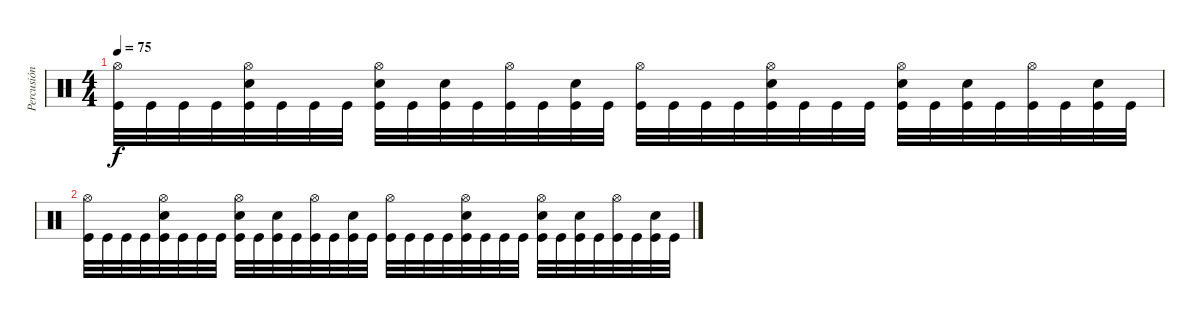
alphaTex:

\track ("Percusión" "Percusión") {instrument percussion}
\staff {score}
\articulation defaults
\ts (4 4)
\tempo 75
\clef neutral
\ks c
("Kick (hit)" "Hi-Hat (open)").32{dy f} "Kick (hit)".32 "Kick (hit)".32 "Kick (hit)".32 ("Kick (hit)" "Snare (hit) 2" "Hi-Hat (open)").32 "Kick (hit)".32 "Kick (hit)".32 "Kick (hit)".32 ("Kick (hit)" "Snare (hit) 2" "Hi-Hat (open)").32 "Kick (hit)".32 ("Kick (hit)" "Snare (hit) 2").32 "Kick (hit)".32 ("Kick (hit)" "Hi-Hat (open)").32 "Kick (hit)".32 ("Kick (hit)" "Snare (hit) 2").32 "Kick (hit)".32 ("Kick (hit)" "Hi-Hat (open)").32 "Kick (hit)".32 "Kick (hit)".32 "Kick (hit)".32 ("Kick (hit)" "Snare (hit) 2" "Hi-Hat (open)").32 "Kick (hit)".32 "Kick (hit)".32 "Kick (hit)".32 ("Kick (hit)" "Snare (hit) 2" "Hi-Hat (open)").32 "Kick (hit)".32 ("Kick (hit)" "Snare (hit) 2").32 "Kick (hit)".32 ("Kick (hit)" "Hi-Hat (open)").32 "Kick (hit)".32 ("Kick (hit)" "Snare (hit) 2").32 "Kick (hit)".32 |
("Kick (hit)" "Hi-Hat (open)").32 "Kick (hit)".32 "Kick (hit)".32 "Kick (hit)".32 ("Kick (hit)" "Snare (hit) 2" "Hi-Hat (open)").32 "Kick (hit)".32 "Kick (hit)".32 "Kick (hit)".32 ("Kick (hit)" "Snare (hit) 2" "Hi-Hat (open)").32 "Kick (hit)".32 ("Kick (hit)" "Snare (hit) 2").32 "Kick (hit)".32 ("Kick (hit)" "Hi-Hat (open)").32 "Kick (hit)".32 ("Kick (hit)" "Snare (hit) 2").32 "Kick (hit)".32 ("Kick (hit)" "Hi-Hat (open)").32 "Kick (hit)".32 "Kick (hit)".32 "Kick (hit)".32 ("Kick (hit)" "Snare (hit) 2" "Hi-Hat (open)").32 "Kick (hit)".32 "Kick (hit)".32 "Kick (hit)".32 ("Kick (hit)" "Snare (hit) 2" "Hi-Hat (open)").32 "Kick (hit)".32 ("Kick (hit)" "Snare (hit) 2").32 "Kick (hit)".32 ("Kick (hit)" "Hi-Hat (open)").32 "Kick (hit)".32 ("Kick (hit)" "Snare (hit) 2").32 "Kick (hit)".32
